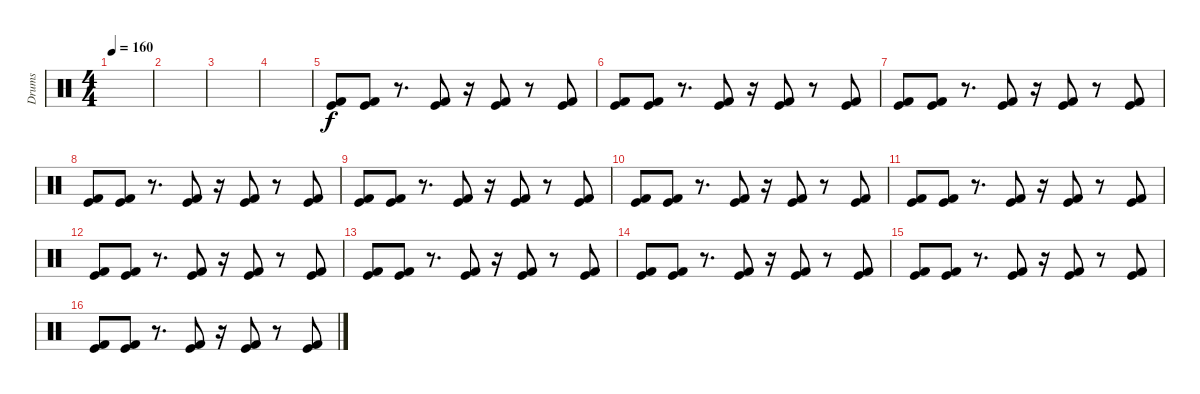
\track ("Drums" "Drums") {instrument percussion}
\staff {score}
\articulation defaults
\ts (4 4)
\tempo 160
\clef neutral
\ks c
|
|
|
|
("Kick (hit) 2" "Kick (hit)").8 ("Kick (hit) 2" "Kick (hit)").8 r.8{d} ("Kick (hit) 2" "Kick (hit)").8 r.16 ("Kick (hit) 2" "Kick (hit)").8 r.8 ("Kick (hit) 2" "Kick (hit)").8 |
("Kick (hit) 2" "Kick (hit)").8 ("Kick (hit) 2" "Kick (hit)").8 r.8{d} ("Kick (hit) 2" "Kick (hit)").8 r.16 ("Kick (hit) 2" "Kick (hit)").8 r.8 ("Kick (hit) 2" "Kick (hit)").8 |
("Kick (hit) 2" "Kick (hit)").8 ("Kick (hit) 2" "Kick (hit)").8 r.8{d} ("Kick (hit) 2" "Kick (hit)").8 r.16 ("Kick (hit) 2" "Kick (hit)").8 r.8 ("Kick (hit) 2" "Kick (hit)").8 |
("Kick (hit) 2" "Kick (hit)").8 ("Kick (hit) 2" "Kick (hit)").8 r.8{d} ("Kick (hit) 2" "Kick (hit)").8 r.16 ("Kick (hit) 2" "Kick (hit)").8 r.8 ("Kick (hit) 2" "Kick (hit)").8 |
("Kick (hit) 2" "Kick (hit)").8 ("Kick (hit) 2" "Kick (hit)").8 r.8{d} ("Kick (hit) 2" "Kick (hit)").8 r.16 ("Kick (hit) 2" "Kick (hit)").8 r.8 ("Kick (hit) 2" "Kick (hit)").8 |
("Kick (hit) 2" "Kick (hit)").8 ("Kick (hit) 2" "Kick (hit)").8 r.8{d} ("Kick (hit) 2" "Kick (hit)").8 r.16 ("Kick (hit) 2" "Kick (hit)").8 r.8 ("Kick (hit) 2" "Kick (hit)").8 |
("Kick (hit) 2" "Kick (hit)").8 ("Kick (hit) 2" "Kick (hit)").8 r.8{d} ("Kick (hit) 2" "Kick (hit)").8 r.16 ("Kick (hit) 2" "Kick (hit)").8 r.8 ("Kick (hit) 2" "Kick (hit)").8 |
("Kick (hit) 2" "Kick (hit)").8 ("Kick (hit) 2" "Kick (hit)").8 r.8{d} ("Kick (hit) 2" "Kick (hit)").8 r.16 ("Kick (hit) 2" "Kick (hit)").8 r.8 ("Kick (hit) 2" "Kick (hit)").8 |
("Kick (hit) 2" "Kick (hit)").8 ("Kick (hit) 2" "Kick (hit)").8 r.8{d} ("Kick (hit) 2" "Kick (hit)").8 r.16 ("Kick (hit) 2" "Kick (hit)").8 r.8 ("Kick (hit) 2" "Kick (hit)").8 |
("Kick (hit) 2" "Kick (hit)").8 ("Kick (hit) 2" "Kick (hit)").8 r.8{d} ("Kick (hit) 2" "Kick (hit)").8 r.16 ("Kick (hit) 2" "Kick (hit)").8 r.8 ("Kick (hit) 2" "Kick (hit)").8 |
("Kick (hit) 2" "Kick (hit)").8 ("Kick (hit) 2" "Kick (hit)").8 r.8{d} ("Kick (hit) 2" "Kick (hit)").8 r.16 ("Kick (hit) 2" "Kick (hit)").8 r.8 ("Kick (hit) 2" "Kick (hit)").8 |
("Kick (hit) 2" "Kick (hit)").8 ("Kick (hit) 2" "Kick (hit)").8 r.8{d} ("Kick (hit) 2" "Kick (hit)").8 r.16 ("Kick (hit) 2" "Kick (hit)").8 r.8 ("Kick (hit) 2" "Kick (hit)").8
